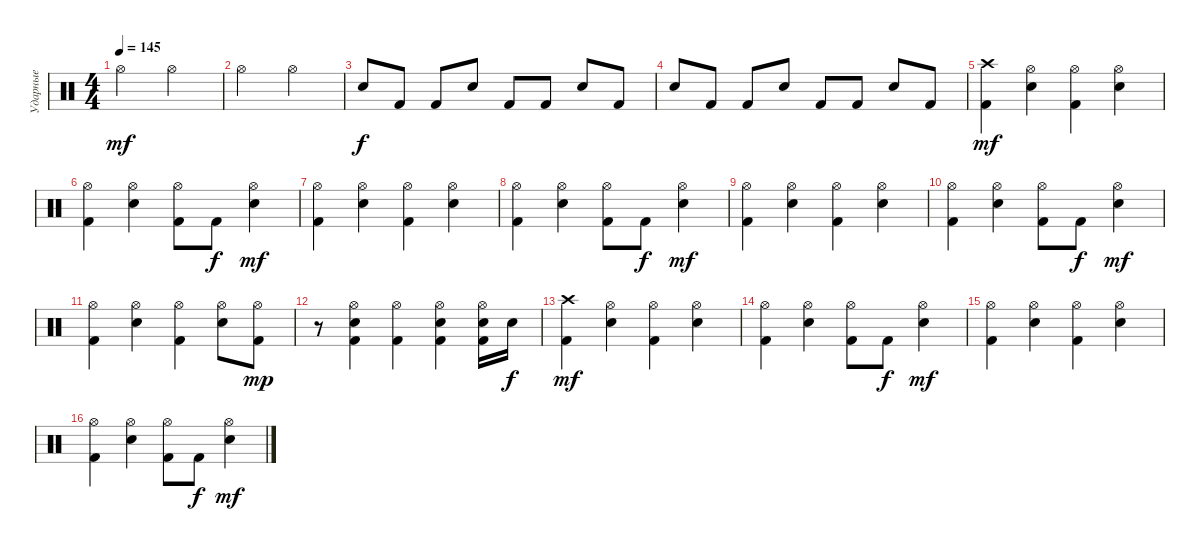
\track ("Ударные" "Ударные") {instrument percussion}
\staff {score}
\articulation defaults
\ts (4 4)
\tempo 145
\clef neutral
\ks c "Hi-Hat (open)".2{dy mf} "Hi-Hat (open)".2
|
"Hi-Hat (open)".2 "Hi-Hat (open)".2 |
"Snare (hit) 2".8{dy f} "Kick (hit) 2".8 "Kick (hit) 2".8 "Snare (hit) 2".8 "Kick (hit) 2".8 "Kick (hit) 2".8 "Snare (hit) 2".8 "Kick (hit) 2".8 |
"Snare (hit) 2".8 "Kick (hit) 2".8 "Kick (hit) 2".8 "Snare (hit) 2".8 "Kick (hit) 2".8 "Kick (hit) 2".8 "Snare (hit) 2".8 "Kick (hit) 2".8 |
("Kick (hit) 2" "Crash high (hit)").4{dy mf} ("Snare (hit) 2" "Hi-Hat (open)").4 ("Kick (hit) 2" "Hi-Hat (open)").4 ("Snare (hit) 2" "Hi-Hat (open)").4 |
("Kick (hit) 2" "Hi-Hat (open)").4 ("Snare (hit) 2" "Hi-Hat (open)").4 ("Kick (hit) 2" "Hi-Hat (open)").8 "Kick (hit) 2".8{dy f} ("Snare (hit) 2" "Hi-Hat (open)").4{dy mf} |
("Kick (hit) 2" "Hi-Hat (open)").4 ("Snare (hit) 2" "Hi-Hat (open)").4 ("Kick (hit) 2" "Hi-Hat (open)").4 ("Snare (hit) 2" "Hi-Hat (open)").4 |
("Kick (hit) 2" "Hi-Hat (open)").4 ("Snare (hit) 2" "Hi-Hat (open)").4 ("Kick (hit) 2" "Hi-Hat (open)").8 "Kick (hit) 2".8{dy f} ("Snare (hit) 2" "Hi-Hat (open)").4{dy mf} |
("Kick (hit) 2" "Hi-Hat (open)").4 ("Snare (hit) 2" "Hi-Hat (open)").4 ("Kick (hit) 2" "Hi-Hat (open)").4 ("Snare (hit) 2" "Hi-Hat (open)").4 |
("Kick (hit) 2" "Hi-Hat (open)").4 ("Snare (hit) 2" "Hi-Hat (open)").4 ("Kick (hit) 2" "Hi-Hat (open)").8 "Kick (hit) 2".8{dy f} ("Snare (hit) 2" "Hi-Hat (open)").4{dy mf} |
("Kick (hit) 2" "Hi-Hat (open)").4 ("Snare (hit) 2" "Hi-Hat (open)").4 ("Kick (hit) 2" "Hi-Hat (open)").4 ("Snare (hit) 2" "Hi-Hat (open)").8 ("Kick (hit) 2" "Hi-Hat (open)").8{dy mp} |
r.8 ("Kick (hit) 2" "Snare (hit) 2" "Hi-Hat (open)").4 ("Kick (hit) 2" "Hi-Hat (open)").4 ("Kick (hit) 2" "Snare (hit) 2" "Hi-Hat (open)").4 ("Kick (hit) 2" "Snare (hit) 2" "Hi-Hat (open)").16 "Snare (hit) 2".16{dy f} |
("Kick (hit) 2" "Crash high (hit)").4{dy mf} ("Snare (hit) 2" "Hi-Hat (open)").4 ("Kick (hit) 2" "Hi-Hat (open)").4 ("Snare (hit) 2" "Hi-Hat (open)").4 |
("Kick (hit) 2" "Hi-Hat (open)").4 ("Snare (hit) 2" "Hi-Hat (open)").4 ("Kick (hit) 2" "Hi-Hat (open)").8 "Kick (hit) 2".8{dy f} ("Snare (hit) 2" "Hi-Hat (open)").4{dy mf} |
("Kick (hit) 2" "Hi-Hat (open)").4 ("Snare (hit) 2" "Hi-Hat (open)").4 ("Kick (hit) 2" "Hi-Hat (open)").4 ("Snare (hit) 2" "Hi-Hat (open)").4 |
("Kick (hit) 2" "Hi-Hat (open)").4 ("Snare (hit) 2" "Hi-Hat (open)").4 ("Kick (hit) 2" "Hi-Hat (open)").8 "Kick (hit) 2".8{dy f} ("Snare (hit) 2" "Hi-Hat (open)").4{dy mf}
